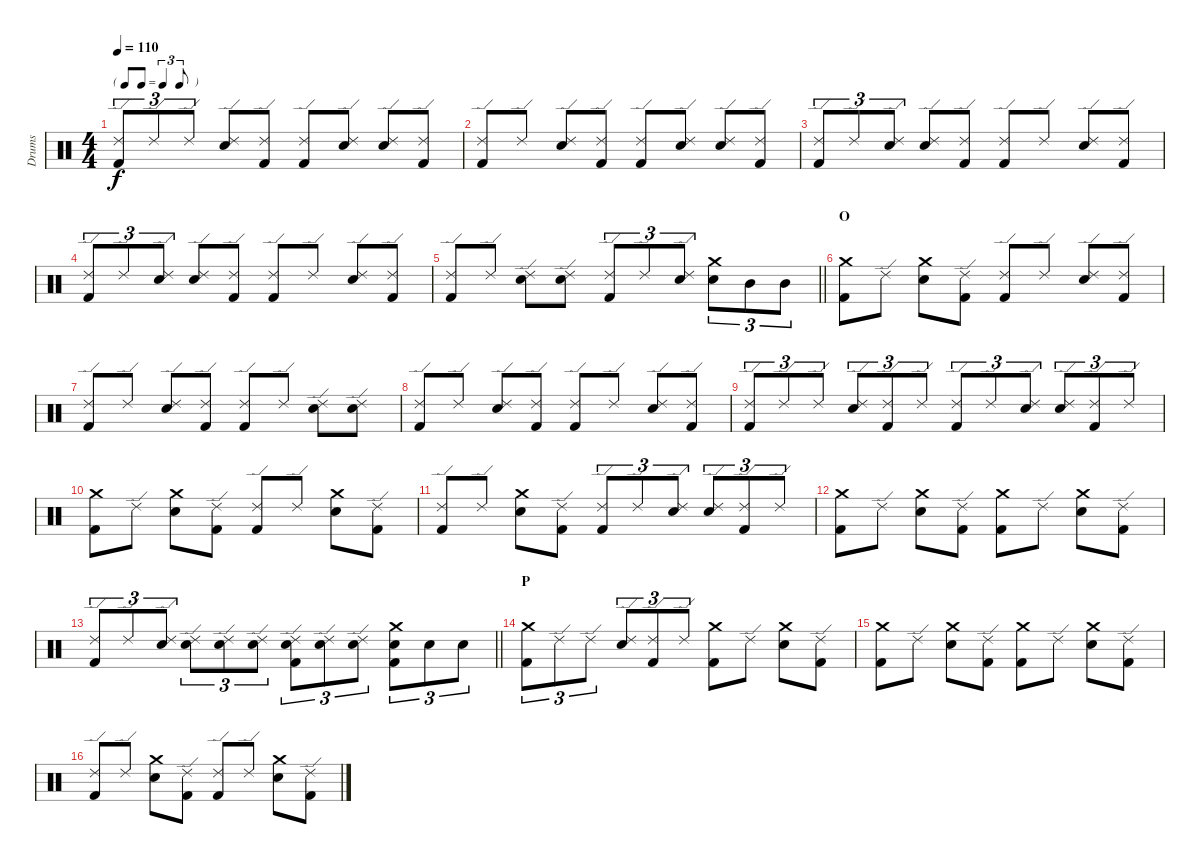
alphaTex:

\track ("Drums" "Drums") {instrument percussion}
\staff {score}
\articulation defaults
\ts (4 4)
\tf triplet8th
\tempo 110
\clef neutral
\ks c
("Ride (edge) 2" "Kick (hit) 2").8{tu (3 2) dy f} "Ride (edge) 2".8{tu (3 2)} "Ride (edge) 2".8{tu (3 2)} ("Ride (edge) 2" "Snare (hit) 2").8 ("Ride (edge) 2" "Kick (hit) 2").8 ("Ride (edge) 2" "Kick (hit) 2").8 ("Ride (edge) 2" "Snare (hit) 2").8 ("Ride (edge) 2" "Snare (hit) 2").8 ("Ride (edge) 2" "Kick (hit) 2").8 |
("Ride (edge) 2" "Kick (hit) 2").8 "Ride (edge) 2".8 ("Ride (edge) 2" "Snare (hit) 2").8 ("Ride (edge) 2" "Kick (hit) 2").8 ("Ride (edge) 2" "Kick (hit) 2").8 ("Ride (edge) 2" "Snare (hit) 2").8 ("Ride (edge) 2" "Snare (hit) 2").8 ("Ride (edge) 2" "Kick (hit) 2").8 |
("Ride (edge) 2" "Kick (hit) 2").8{tu (3 2)} "Ride (edge) 2".8{tu (3 2)} ("Ride (edge) 2" "Snare (hit) 2").8{tu (3 2)} ("Ride (edge) 2" "Snare (hit) 2").8 ("Ride (edge) 2" "Kick (hit) 2").8 ("Ride (edge) 2" "Kick (hit) 2").8 "Ride (edge) 2".8 ("Ride (edge) 2" "Snare (hit) 2").8 ("Ride (edge) 2" "Kick (hit) 2").8 |
("Ride (edge) 2" "Kick (hit) 2").8{tu (3 2)} "Ride (edge) 2".8{tu (3 2)} ("Ride (edge) 2" "Snare (hit) 2").8{tu (3 2)} ("Ride (edge) 2" "Snare (hit) 2").8 ("Ride (edge) 2" "Kick (hit) 2").8 ("Ride (edge) 2" "Kick (hit) 2").8 "Ride (edge) 2".8 ("Ride (edge) 2" "Snare (hit) 2").8 ("Ride (edge) 2" "Kick (hit) 2").8 |
\barLineRight lightlight
("Ride (edge) 2" "Kick (hit) 2").8 "Ride (edge) 2".8 ("Ride (edge) 2" "Snare (hit) 2").8 ("Ride (edge) 2" "Snare (hit) 2").8 ("Ride (edge) 2" "Kick (hit) 2").8{tu (3 2)} "Ride (edge) 2".8{tu (3 2)} ("Ride (edge) 2" "Snare (hit) 2").8{tu (3 2)} ("Crash medium (hit)" "Snare (hit) 2").8{tu (3 2)} "Mid Tom (hit)".8{tu (3 2)} "Mid Tom (hit)".8{tu (3 2)} |
\section ("" "O")
("Crash medium (hit)" "Kick (hit) 2").8 "Ride (edge) 2".8 ("Crash medium (hit)" "Snare (hit) 2").8 ("Ride (edge) 2" "Kick (hit) 2").8 ("Ride (edge) 2" "Kick (hit) 2").8 "Ride (edge) 2".8 ("Ride (edge) 2" "Snare (hit) 2").8 ("Ride (edge) 2" "Kick (hit) 2").8 |
("Ride (edge) 2" "Kick (hit) 2").8 "Ride (edge) 2".8 ("Ride (edge) 2" "Snare (hit) 2").8 ("Ride (edge) 2" "Kick (hit) 2").8 ("Ride (edge) 2" "Kick (hit) 2").8 "Ride (edge) 2".8 ("Ride (edge) 2" "Snare (hit) 2").8 ("Ride (edge) 2" "Snare (hit) 2").8 |
("Ride (edge) 2" "Kick (hit) 2").8 "Ride (edge) 2".8 ("Ride (edge) 2" "Snare (hit) 2").8 ("Ride (edge) 2" "Kick (hit) 2").8 ("Ride (edge) 2" "Kick (hit) 2").8 "Ride (edge) 2".8 ("Ride (edge) 2" "Snare (hit) 2").8 ("Ride (edge) 2" "Kick (hit) 2").8 |
("Ride (edge) 2" "Kick (hit) 2").8{tu (3 2)} "Ride (edge) 2".8{tu (3 2)} "Ride (edge) 2".8{tu (3 2)} ("Ride (edge) 2" "Snare (hit) 2").8{tu (3 2)} ("Ride (edge) 2" "Kick (hit) 2").8{tu (3 2)} "Ride (edge) 2".8{tu (3 2)} ("Ride (edge) 2" "Kick (hit) 2").8{tu (3 2)} "Ride (edge) 2".8{tu (3 2)} ("Ride (edge) 2" "Snare (hit) 2").8{tu (3 2)} ("Ride (edge) 2" "Snare (hit) 2").8{tu (3 2)} ("Ride (edge) 2" "Kick (hit) 2").8{tu (3 2)} "Ride (edge) 2".8{tu (3 2)} |
("Crash medium (hit)" "Kick (hit) 2").8 "Ride (edge) 2".8 ("Crash medium (hit)" "Snare (hit) 2").8 ("Ride (edge) 2" "Kick (hit) 2").8 ("Ride (edge) 2" "Kick (hit) 2").8 "Ride (edge) 2".8 ("Crash medium (hit)" "Snare (hit) 2").8 ("Ride (edge) 2" "Kick (hit) 2").8 |
("Ride (edge) 2" "Kick (hit) 2").8 "Ride (edge) 2".8 ("Crash medium (hit)" "Snare (hit) 2").8 ("Ride (edge) 2" "Kick (hit) 2").8 ("Ride (edge) 2" "Kick (hit) 2").8{tu (3 2)} "Ride (edge) 2".8{tu (3 2)} ("Ride (edge) 2" "Snare (hit) 2").8{tu (3 2)} ("Ride (edge) 2" "Snare (hit) 2").8{tu (3 2)} ("Ride (edge) 2" "Kick (hit) 2").8{tu (3 2)} "Ride (edge) 2".8{tu (3 2)} |
("Crash medium (hit)" "Kick (hit) 2").8 "Ride (edge) 2".8 ("Crash medium (hit)" "Snare (hit) 2").8 ("Ride (edge) 2" "Kick (hit) 2").8 ("Crash medium (hit)" "Kick (hit) 2").8 "Ride (edge) 2".8 ("Crash medium (hit)" "Snare (hit) 2").8 ("Ride (edge) 2" "Kick (hit) 2").8 |
\barLineRight lightlight
("Ride (edge) 2" "Kick (hit) 2").8{tu (3 2)} "Ride (edge) 2".8{tu (3 2)} ("Ride (edge) 2" "Snare (hit) 2").8{tu (3 2)} ("Ride (edge) 2" "Snare (hit) 2").8{tu (3 2)} ("Ride (edge) 2" "Snare (hit) 2").8{tu (3 2)} ("Ride (edge) 2" "Snare (hit) 2").8{tu (3 2)} ("Ride (edge) 2" "Snare (hit) 2" "Kick (hit) 2").8{tu (3 2)} ("Ride (edge) 2" "Snare (hit) 2").8{tu (3 2)} ("Ride (edge) 2" "Snare (hit) 2").8{tu (3 2)} ("Crash medium (hit)" "Snare (hit) 2" "Kick (hit) 2").8{tu (3 2)} "Snare (hit) 2".8{tu (3 2)} "Snare (hit) 2".8{tu (3 2)} |
\section ("" "P")
("Crash medium (hit)" "Kick (hit) 2").8{tu (3 2)} "Ride (edge) 2".8{tu (3 2)} "Ride (edge) 2".8{tu (3 2)} ("Ride (edge) 2" "Snare (hit) 2").8{tu (3 2)} ("Ride (edge) 2" "Kick (hit) 2").8{tu (3 2)} "Ride (edge) 2".8{tu (3 2)} ("Crash medium (hit)" "Kick (hit) 2").8 "Ride (edge) 2".8 ("Crash medium (hit)" "Snare (hit) 2").8 ("Ride (edge) 2" "Kick (hit) 2").8 |
("Crash medium (hit)" "Kick (hit) 2").8 "Ride (edge) 2".8 ("Crash medium (hit)" "Snare (hit) 2").8 ("Ride (edge) 2" "Kick (hit) 2").8 ("Crash medium (hit)" "Kick (hit) 2").8 "Ride (edge) 2".8 ("Crash medium (hit)" "Snare (hit) 2").8 ("Ride (edge) 2" "Kick (hit) 2").8 |
("Ride (edge) 2" "Kick (hit) 2").8 "Ride (edge) 2".8 ("Crash medium (hit)" "Snare (hit) 2").8 ("Ride (edge) 2" "Kick (hit) 2").8 ("Ride (edge) 2" "Kick (hit) 2").8 "Ride (edge) 2".8 ("Crash medium (hit)" "Snare (hit) 2").8 ("Ride (edge) 2" "Kick (hit) 2").8
